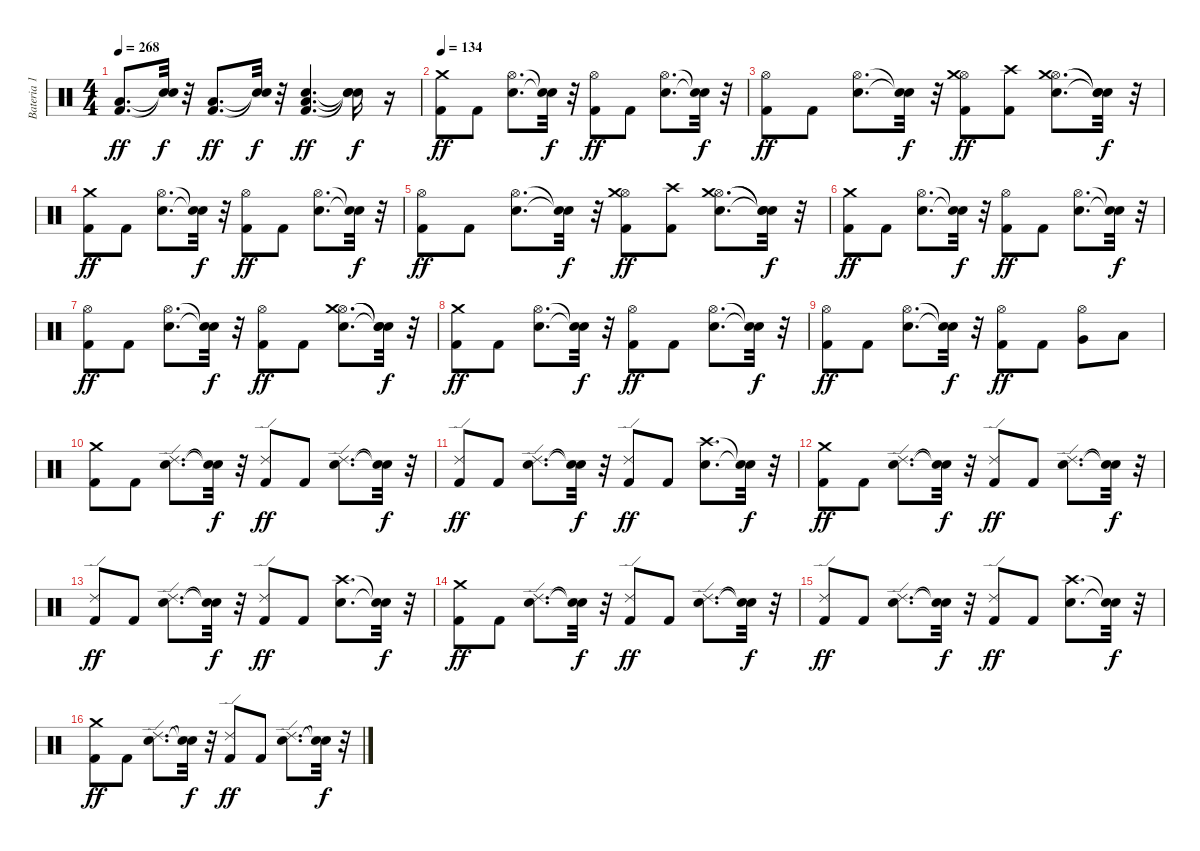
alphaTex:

\track ("Bateria 1" "Bateria 1") {instrument percussion}
\staff {score}
\articulation defaults
\ts (4 4)
\tempo 268
\clef neutral
\ks c
("Kick (hit) 2" "Low Floor Tom (hit)").8{d dy ff} ("Snare (hit)"{t} "Snare (hit)"{t}).32{dy f} r.32 ("Kick (hit) 2" "Low Floor Tom (hit)").8{d dy ff} ("Snare (hit)"{t} "Snare (hit)"{t}).32{dy f} r.32 ("Kick (hit) 2" "Electric Snare (hit)" "Low Floor Tom (hit)").4{d dy ff} ("Snare (hit)"{t} "Snare (hit)"{t} "Snare (hit)"{t}).16{dy f} r.16 |
\tempo 134
("Kick (hit) 2" "Crash medium (hit)").8{dy ff} "Kick (hit) 2".8 ("Electric Snare (hit)" "Hi-Hat (open)").8{d} ("Snare (hit)"{t} "Snare (hit)"{t}).32{dy f} r.32 ("Kick (hit) 2" "Hi-Hat (open)").8{dy ff} "Kick (hit) 2".8 ("Electric Snare (hit)" "Hi-Hat (open)").8{d} ("Snare (hit)"{t} "Snare (hit)"{t}).32{dy f} r.32 |
("Kick (hit) 2" "Hi-Hat (open)").8{dy ff} "Kick (hit) 2".8 ("Electric Snare (hit)" "Hi-Hat (open)").8{d} ("Snare (hit)"{t} "Snare (hit)"{t}).32{dy f} r.32 ("Kick (hit) 2" "Hi-Hat (open)" "Crash medium (hit)").8{dy ff} ("Kick (hit) 2" "Crash high (hit)").8 ("Electric Snare (hit)" "Hi-Hat (open)" "Crash medium (hit)").8{d} ("Snare (hit)"{t} "Snare (hit)"{t} "Snare (hit)"{t}).32{dy f} r.32 |
("Kick (hit) 2" "Crash medium (hit)").8{dy ff} "Kick (hit) 2".8 ("Electric Snare (hit)" "Hi-Hat (open)").8{d} ("Snare (hit)"{t} "Snare (hit)"{t}).32{dy f} r.32 ("Kick (hit) 2" "Hi-Hat (open)").8{dy ff} "Kick (hit) 2".8 ("Electric Snare (hit)" "Hi-Hat (open)").8{d} ("Snare (hit)"{t} "Snare (hit)"{t}).32{dy f} r.32 |
("Kick (hit) 2" "Hi-Hat (open)").8{dy ff} "Kick (hit) 2".8 ("Electric Snare (hit)" "Hi-Hat (open)").8{d} ("Snare (hit)"{t} "Snare (hit)"{t}).32{dy f} r.32 ("Kick (hit) 2" "Hi-Hat (open)" "Crash medium (hit)").8{dy ff} ("Kick (hit) 2" "Crash high (hit)").8 ("Electric Snare (hit)" "Hi-Hat (open)" "Crash medium (hit)").8{d} ("Snare (hit)"{t} "Snare (hit)"{t} "Snare (hit)"{t}).32{dy f} r.32 |
("Kick (hit) 2" "Crash medium (hit)").8{dy ff} "Kick (hit) 2".8 ("Electric Snare (hit)" "Hi-Hat (open)").8{d} ("Snare (hit)"{t} "Snare (hit)"{t}).32{dy f} r.32 ("Kick (hit) 2" "Hi-Hat (open)").8{dy ff} "Kick (hit) 2".8 ("Electric Snare (hit)" "Hi-Hat (open)").8{d} ("Snare (hit)"{t} "Snare (hit)"{t}).32{dy f} r.32 |
("Kick (hit) 2" "Hi-Hat (open)").8{dy ff} "Kick (hit) 2".8 ("Electric Snare (hit)" "Hi-Hat (open)").8{d} ("Snare (hit)"{t} "Snare (hit)"{t}).32{dy f} r.32 ("Kick (hit) 2" "Hi-Hat (open)").8{dy ff} "Kick (hit) 2".8 ("Electric Snare (hit)" "Hi-Hat (open)" "Crash medium (hit)").8{d} ("Snare (hit)"{t} "Snare (hit)"{t} "Snare (hit)"{t}).32{dy f} r.32 |
("Kick (hit) 2" "Crash medium (hit)").8{dy ff} "Kick (hit) 2".8 ("Electric Snare (hit)" "Hi-Hat (open)").8{d} ("Snare (hit)"{t} "Snare (hit)"{t}).32{dy f} r.32 ("Kick (hit) 2" "Hi-Hat (open)").8{dy ff} "Kick (hit) 2".8 ("Electric Snare (hit)" "Hi-Hat (open)").8{d} ("Snare (hit)"{t} "Snare (hit)"{t}).32{dy f} r.32 |
("Kick (hit) 2" "Hi-Hat (open)").8{dy ff} "Kick (hit) 2".8 ("Electric Snare (hit)" "Hi-Hat (open)").8{d} ("Snare (hit)"{t} "Snare (hit)"{t}).32{dy f} r.32 ("Kick (hit) 2" "Hi-Hat (open)").8{dy ff} "Kick (hit) 2".8 ("Very Low Tom (hit)" "Hi-Hat (open)").8 "Low Floor Tom (hit)".8 |
("Kick (hit) 2" "Crash medium (hit)").8 "Kick (hit) 2".8 ("Electric Snare (hit)" "Ride (edge) 2").8{d} ("Snare (hit)"{t} "Snare (hit)"{t}).32{dy f} r.32 ("Kick (hit) 2" "Ride (edge) 2").8{dy ff} "Kick (hit) 2".8 ("Electric Snare (hit)" "Ride (edge) 2").8{d} ("Snare (hit)"{t} "Snare (hit)"{t}).32{dy f} r.32 |
("Kick (hit) 2" "Ride (edge) 2").8{dy ff} "Kick (hit) 2".8 ("Electric Snare (hit)" "Ride (edge) 2").8{d} ("Snare (hit)"{t} "Snare (hit)"{t}).32{dy f} r.32 ("Kick (hit) 2" "Ride (edge) 2").8{dy ff} "Kick (hit) 2".8 ("Electric Snare (hit)" "Crash high (hit)").8{d} ("Snare (hit)"{t} "Snare (hit)"{t}).32{dy f} r.32 |
("Kick (hit) 2" "Crash medium (hit)").8{dy ff} "Kick (hit) 2".8 ("Electric Snare (hit)" "Ride (edge) 2").8{d} ("Snare (hit)"{t} "Snare (hit)"{t}).32{dy f} r.32 ("Kick (hit) 2" "Ride (edge) 2").8{dy ff} "Kick (hit) 2".8 ("Electric Snare (hit)" "Ride (edge) 2").8{d} ("Snare (hit)"{t} "Snare (hit)"{t}).32{dy f} r.32 |
("Kick (hit) 2" "Ride (edge) 2").8{dy ff} "Kick (hit) 2".8 ("Electric Snare (hit)" "Ride (edge) 2").8{d} ("Snare (hit)"{t} "Snare (hit)"{t}).32{dy f} r.32 ("Kick (hit) 2" "Ride (edge) 2").8{dy ff} "Kick (hit) 2".8 ("Electric Snare (hit)" "Crash high (hit)").8{d} ("Snare (hit)"{t} "Snare (hit)"{t}).32{dy f} r.32 |
("Kick (hit) 2" "Crash medium (hit)").8{dy ff} "Kick (hit) 2".8 ("Electric Snare (hit)" "Ride (edge) 2").8{d} ("Snare (hit)"{t} "Snare (hit)"{t}).32{dy f} r.32 ("Kick (hit) 2" "Ride (edge) 2").8{dy ff} "Kick (hit) 2".8 ("Electric Snare (hit)" "Ride (edge) 2").8{d} ("Snare (hit)"{t} "Snare (hit)"{t}).32{dy f} r.32 |
("Kick (hit) 2" "Ride (edge) 2").8{dy ff} "Kick (hit) 2".8 ("Electric Snare (hit)" "Ride (edge) 2").8{d} ("Snare (hit)"{t} "Snare (hit)"{t}).32{dy f} r.32 ("Kick (hit) 2" "Ride (edge) 2").8{dy ff} "Kick (hit) 2".8 ("Electric Snare (hit)" "Crash high (hit)").8{d} ("Snare (hit)"{t} "Snare (hit)"{t}).32{dy f} r.32 |
("Kick (hit) 2" "Crash medium (hit)").8{dy ff} "Kick (hit) 2".8 ("Electric Snare (hit)" "Ride (edge) 2").8{d} ("Snare (hit)"{t} "Snare (hit)"{t}).32{dy f} r.32 ("Kick (hit) 2" "Ride (edge) 2").8{dy ff} "Kick (hit) 2".8 ("Electric Snare (hit)" "Ride (edge) 2").8{d} ("Snare (hit)"{t} "Snare (hit)"{t}).32{dy f} r.32
